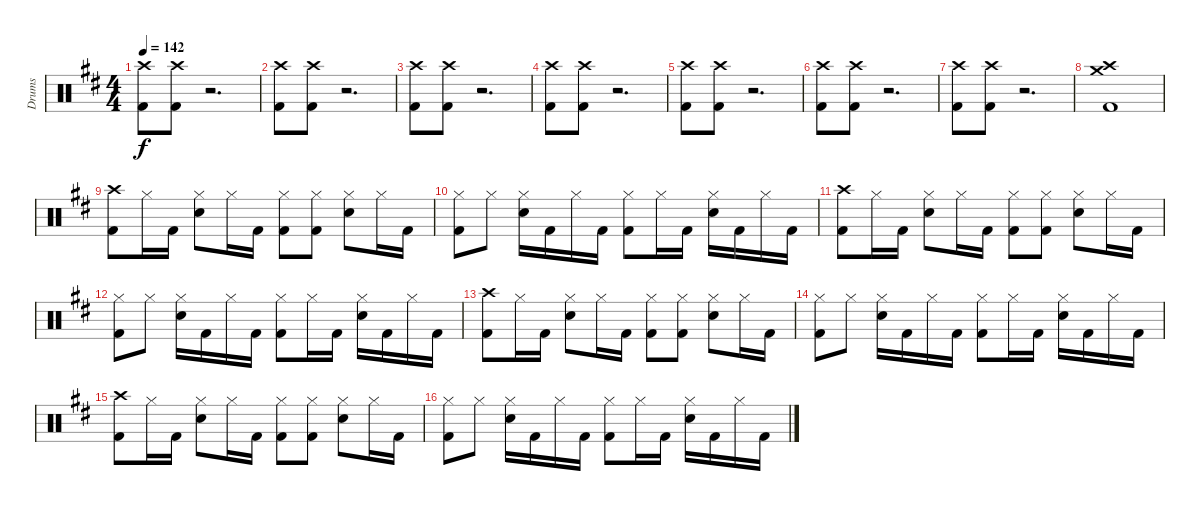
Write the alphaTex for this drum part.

\track ("Drums" "Drums") {instrument percussion}
\staff {score}
\articulation defaults
\ts (4 4)
\tempo 142
\clef neutral
\ks bminor
("Crash high (hit)" "Kick (hit) 2").8{dy f} ("Crash high (hit)" "Kick (hit) 2").8 r.2{d} |
("Crash high (hit)" "Kick (hit) 2").8 ("Crash high (hit)" "Kick (hit) 2").8 r.2{d} |
("Crash high (hit)" "Kick (hit) 2").8 ("Crash high (hit)" "Kick (hit) 2").8 r.2{d} |
("Crash high (hit)" "Kick (hit) 2").8 ("Crash high (hit)" "Kick (hit) 2").8 r.2{d} |
("Crash high (hit)" "Kick (hit) 2").8 ("Crash high (hit)" "Kick (hit) 2").8 r.2{d} |
("Crash high (hit)" "Kick (hit) 2").8 ("Crash high (hit)" "Kick (hit) 2").8 r.2{d} |
("Crash high (hit)" "Kick (hit) 2").8 ("Crash high (hit)" "Kick (hit) 2").8 r.2{d} |
("Crash medium (hit)" "Crash high (hit)" "Kick (hit) 2").1 |
("Crash high (hit)" "Kick (hit) 2").8 "Hi-Hat (closed)".16 "Kick (hit) 2".16 ("Hi-Hat (closed)" "Electric Snare (hit)").8 "Hi-Hat (closed)".16 "Kick (hit) 2".16 ("Hi-Hat (closed)" "Kick (hit) 2").8 ("Hi-Hat (closed)" "Kick (hit) 2").8 ("Hi-Hat (closed)" "Electric Snare (hit)").8 "Hi-Hat (closed)".16 "Kick (hit) 2".16 |
("Hi-Hat (closed)" "Kick (hit) 2").8 "Hi-Hat (closed)".8 ("Hi-Hat (closed)" "Electric Snare (hit)").16 "Kick (hit) 2".16 "Hi-Hat (closed)".16 "Kick (hit) 2".16 ("Hi-Hat (closed)" "Kick (hit) 2").8 "Hi-Hat (closed)".16 "Kick (hit) 2".16 ("Hi-Hat (closed)" "Electric Snare (hit)").16 "Kick (hit) 2".16 "Hi-Hat (closed)".16 "Kick (hit) 2".16 |
("Crash high (hit)" "Kick (hit) 2").8 "Hi-Hat (closed)".16 "Kick (hit) 2".16 ("Hi-Hat (closed)" "Electric Snare (hit)").8 "Hi-Hat (closed)".16 "Kick (hit) 2".16 ("Hi-Hat (closed)" "Kick (hit) 2").8 ("Hi-Hat (closed)" "Kick (hit) 2").8 ("Hi-Hat (closed)" "Electric Snare (hit)").8 "Hi-Hat (closed)".16 "Kick (hit) 2".16 |
("Hi-Hat (closed)" "Kick (hit) 2").8 "Hi-Hat (closed)".8 ("Hi-Hat (closed)" "Electric Snare (hit)").16 "Kick (hit) 2".16 "Hi-Hat (closed)".16 "Kick (hit) 2".16 ("Hi-Hat (closed)" "Kick (hit) 2").8 "Hi-Hat (closed)".16 "Kick (hit) 2".16 ("Hi-Hat (closed)" "Electric Snare (hit)").16 "Kick (hit) 2".16 "Hi-Hat (closed)".16 "Kick (hit) 2".16 |
("Crash high (hit)" "Kick (hit) 2").8 "Hi-Hat (closed)".16 "Kick (hit) 2".16 ("Hi-Hat (closed)" "Electric Snare (hit)").8 "Hi-Hat (closed)".16 "Kick (hit) 2".16 ("Hi-Hat (closed)" "Kick (hit) 2").8 ("Hi-Hat (closed)" "Kick (hit) 2").8 ("Hi-Hat (closed)" "Electric Snare (hit)").8 "Hi-Hat (closed)".16 "Kick (hit) 2".16 |
("Hi-Hat (closed)" "Kick (hit) 2").8 "Hi-Hat (closed)".8 ("Hi-Hat (closed)" "Electric Snare (hit)").16 "Kick (hit) 2".16 "Hi-Hat (closed)".16 "Kick (hit) 2".16 ("Hi-Hat (closed)" "Kick (hit) 2").8 "Hi-Hat (closed)".16 "Kick (hit) 2".16 ("Hi-Hat (closed)" "Electric Snare (hit)").16 "Kick (hit) 2".16 "Hi-Hat (closed)".16 "Kick (hit) 2".16 |
("Crash high (hit)" "Kick (hit) 2").8 "Hi-Hat (closed)".16 "Kick (hit) 2".16 ("Hi-Hat (closed)" "Electric Snare (hit)").8 "Hi-Hat (closed)".16 "Kick (hit) 2".16 ("Hi-Hat (closed)" "Kick (hit) 2").8 ("Hi-Hat (closed)" "Kick (hit) 2").8 ("Hi-Hat (closed)" "Electric Snare (hit)").8 "Hi-Hat (closed)".16 "Kick (hit) 2".16 |
("Hi-Hat (closed)" "Kick (hit) 2").8 "Hi-Hat (closed)".8 ("Hi-Hat (closed)" "Electric Snare (hit)").16 "Kick (hit) 2".16 "Hi-Hat (closed)".16 "Kick (hit) 2".16 ("Hi-Hat (closed)" "Kick (hit) 2").8 "Hi-Hat (closed)".16 "Kick (hit) 2".16 ("Hi-Hat (closed)" "Electric Snare (hit)").16 "Kick (hit) 2".16 "Hi-Hat (closed)".16 "Kick (hit) 2".16
